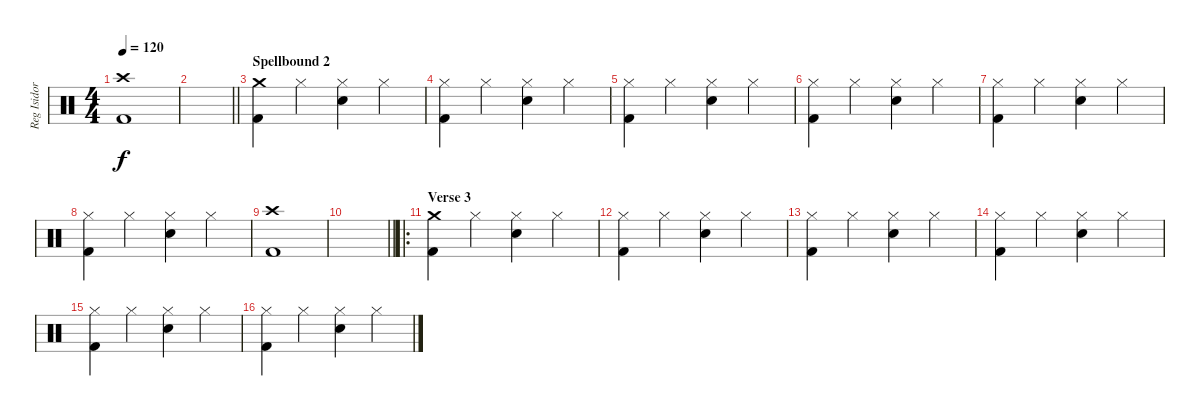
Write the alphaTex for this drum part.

\track ("Reg Isidor" "Reg Isidor") {instrument percussion}
\staff {score}
\articulation defaults
\ts (4 4)
\tempo 120
\clef neutral
\ks c
("Crash high (hit)" "Kick (hit) 2").1{dy f} |
\barLineRight lightlight
|
\section ("" "Spellbound 2")
("Crash medium (hit)" "Kick (hit) 2").4 "Hi-Hat (closed)".4 ("Hi-Hat (closed)" "Snare (hit) 2").4 "Hi-Hat (closed)".4 |
("Hi-Hat (closed)" "Kick (hit) 2").4 "Hi-Hat (closed)".4 ("Hi-Hat (closed)" "Snare (hit) 2").4 "Hi-Hat (closed)".4 |
("Hi-Hat (closed)" "Kick (hit) 2").4 "Hi-Hat (closed)".4 ("Hi-Hat (closed)" "Snare (hit) 2").4 "Hi-Hat (closed)".4 |
("Hi-Hat (closed)" "Kick (hit) 2").4 "Hi-Hat (closed)".4 ("Hi-Hat (closed)" "Snare (hit) 2").4 "Hi-Hat (closed)".4 |
("Hi-Hat (closed)" "Kick (hit) 2").4 "Hi-Hat (closed)".4 ("Hi-Hat (closed)" "Snare (hit) 2").4 "Hi-Hat (closed)".4 |
("Hi-Hat (closed)" "Kick (hit) 2").4 "Hi-Hat (closed)".4 ("Hi-Hat (closed)" "Snare (hit) 2").4 "Hi-Hat (closed)".4 |
("Crash high (hit)" "Kick (hit) 2").1 |
\barLineRight lightlight
|
\ro
\section ("" "Verse 3")
("Crash medium (hit)" "Kick (hit) 2").4 "Hi-Hat (closed)".4 ("Hi-Hat (closed)" "Snare (hit) 2").4 "Hi-Hat (closed)".4 |
("Hi-Hat (closed)" "Kick (hit) 2").4 "Hi-Hat (closed)".4 ("Hi-Hat (closed)" "Snare (hit) 2").4 "Hi-Hat (closed)".4 |
("Hi-Hat (closed)" "Kick (hit) 2").4 "Hi-Hat (closed)".4 ("Hi-Hat (closed)" "Snare (hit) 2").4 "Hi-Hat (closed)".4 |
("Hi-Hat (closed)" "Kick (hit) 2").4 "Hi-Hat (closed)".4 ("Hi-Hat (closed)" "Snare (hit) 2").4 "Hi-Hat (closed)".4 |
("Hi-Hat (closed)" "Kick (hit) 2").4 "Hi-Hat (closed)".4 ("Hi-Hat (closed)" "Snare (hit) 2").4 "Hi-Hat (closed)".4 |
("Hi-Hat (closed)" "Kick (hit) 2").4 "Hi-Hat (closed)".4 ("Hi-Hat (closed)" "Snare (hit) 2").4 "Hi-Hat (closed)".4
